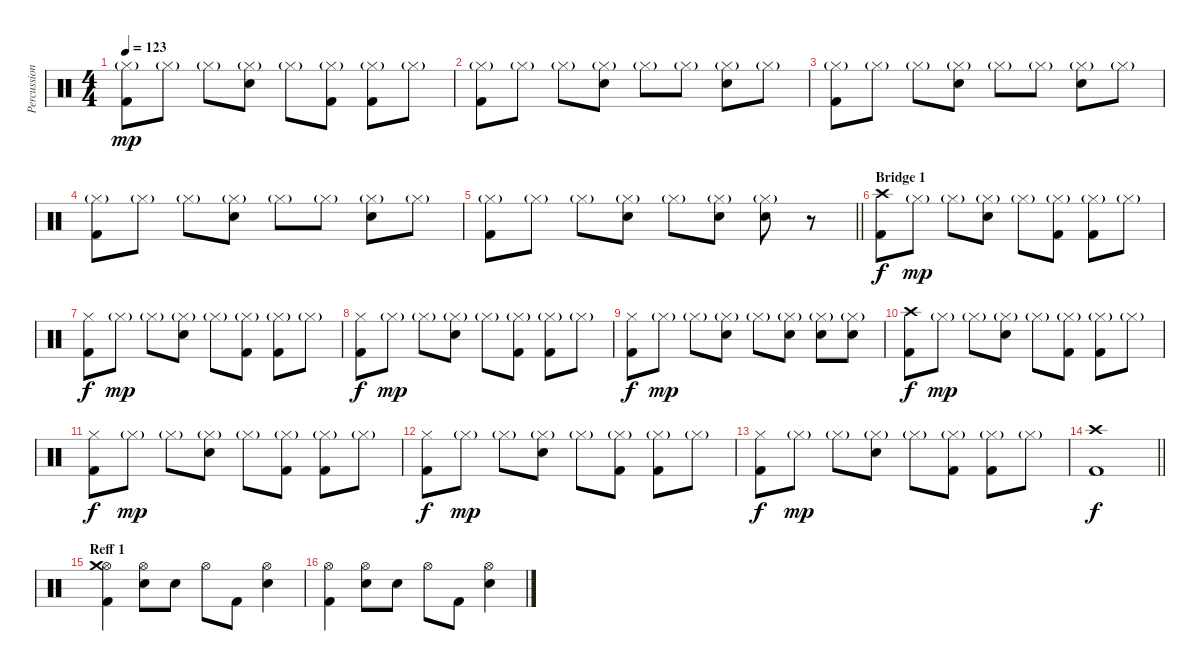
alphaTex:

\track ("Percussion 1" "Percussion") {instrument percussion}
\staff {score}
\articulation defaults
\ts (4 4)
\tempo 123
\clef neutral
\ks c
("Hi-Hat (closed)"{g} "Kick (hit) 2").8{dy mp} "Hi-Hat (closed)"{g}.8 "Hi-Hat (closed)"{g}.8 ("Hi-Hat (closed)"{g} "Electric Snare (hit)").8 "Hi-Hat (closed)"{g}.8 ("Hi-Hat (closed)"{g} "Kick (hit) 2").8 ("Hi-Hat (closed)"{g} "Kick (hit) 2").8 "Hi-Hat (closed)"{g}.8 |
("Hi-Hat (closed)"{g} "Kick (hit) 2").8 "Hi-Hat (closed)"{g}.8 "Hi-Hat (closed)"{g}.8 ("Hi-Hat (closed)"{g} "Electric Snare (hit)").8 "Hi-Hat (closed)"{g}.8 "Hi-Hat (closed)"{g}.8 ("Hi-Hat (closed)"{g} "Electric Snare (hit)").8 "Hi-Hat (closed)"{g}.8 |
("Hi-Hat (closed)"{g} "Kick (hit) 2").8 "Hi-Hat (closed)"{g}.8 "Hi-Hat (closed)"{g}.8 ("Hi-Hat (closed)"{g} "Electric Snare (hit)").8 "Hi-Hat (closed)"{g}.8 "Hi-Hat (closed)"{g}.8 ("Hi-Hat (closed)"{g} "Electric Snare (hit)").8 "Hi-Hat (closed)"{g}.8 |
("Hi-Hat (closed)"{g} "Kick (hit) 2").8 "Hi-Hat (closed)"{g}.8 "Hi-Hat (closed)"{g}.8 ("Hi-Hat (closed)"{g} "Electric Snare (hit)").8 "Hi-Hat (closed)"{g}.8 "Hi-Hat (closed)"{g}.8 ("Hi-Hat (closed)"{g} "Electric Snare (hit)").8 "Hi-Hat (closed)"{g}.8 |
\barLineRight lightlight
("Hi-Hat (closed)"{g} "Kick (hit) 2").8 "Hi-Hat (closed)"{g}.8 "Hi-Hat (closed)"{g}.8 ("Hi-Hat (closed)"{g} "Electric Snare (hit)").8 "Hi-Hat (closed)"{g}.8 ("Hi-Hat (closed)"{g} "Electric Snare (hit)").8 ("Hi-Hat (closed)"{g} "Electric Snare (hit)").8 r.8 |
\section ("" "Bridge 1")
("Crash high (hit)" "Kick (hit) 2").8{dy f} "Hi-Hat (closed)"{g}.8{dy mp} "Hi-Hat (closed)"{g}.8 ("Hi-Hat (closed)"{g} "Electric Snare (hit)").8 "Hi-Hat (closed)"{g}.8 ("Hi-Hat (closed)"{g} "Kick (hit) 2").8 ("Hi-Hat (closed)"{g} "Kick (hit) 2").8 "Hi-Hat (closed)"{g}.8 |
("Hi-Hat (closed)" "Kick (hit) 2").8{dy f} "Hi-Hat (closed)"{g}.8{dy mp} "Hi-Hat (closed)"{g}.8 ("Hi-Hat (closed)"{g} "Electric Snare (hit)").8 "Hi-Hat (closed)"{g}.8 ("Hi-Hat (closed)"{g} "Kick (hit) 2").8 ("Hi-Hat (closed)"{g} "Kick (hit) 2").8 "Hi-Hat (closed)"{g}.8 |
("Hi-Hat (closed)" "Kick (hit) 2").8{dy f} "Hi-Hat (closed)"{g}.8{dy mp} "Hi-Hat (closed)"{g}.8 ("Hi-Hat (closed)"{g} "Electric Snare (hit)").8 "Hi-Hat (closed)"{g}.8 ("Hi-Hat (closed)"{g} "Kick (hit) 2").8 ("Hi-Hat (closed)"{g} "Kick (hit) 2").8 "Hi-Hat (closed)"{g}.8 |
("Hi-Hat (closed)" "Kick (hit) 2").8{dy f} "Hi-Hat (closed)"{g}.8{dy mp} "Hi-Hat (closed)"{g}.8 ("Hi-Hat (closed)"{g} "Electric Snare (hit)").8 "Hi-Hat (closed)"{g}.8 ("Hi-Hat (closed)"{g} "Electric Snare (hit)").8 ("Hi-Hat (closed)"{g} "Electric Snare (hit)").8 ("Hi-Hat (closed)"{g} "Electric Snare (hit)").8 |
("Crash high (hit)" "Kick (hit) 2").8{dy f} "Hi-Hat (closed)"{g}.8{dy mp} "Hi-Hat (closed)"{g}.8 ("Hi-Hat (closed)"{g} "Electric Snare (hit)").8 "Hi-Hat (closed)"{g}.8 ("Hi-Hat (closed)"{g} "Kick (hit) 2").8 ("Hi-Hat (closed)"{g} "Kick (hit) 2").8 "Hi-Hat (closed)"{g}.8 |
("Hi-Hat (closed)" "Kick (hit) 2").8{dy f} "Hi-Hat (closed)"{g}.8{dy mp} "Hi-Hat (closed)"{g}.8 ("Hi-Hat (closed)"{g} "Electric Snare (hit)").8 "Hi-Hat (closed)"{g}.8 ("Hi-Hat (closed)"{g} "Kick (hit) 2").8 ("Hi-Hat (closed)"{g} "Kick (hit) 2").8 "Hi-Hat (closed)"{g}.8 |
("Hi-Hat (closed)" "Kick (hit) 2").8{dy f} "Hi-Hat (closed)"{g}.8{dy mp} "Hi-Hat (closed)"{g}.8 ("Hi-Hat (closed)"{g} "Electric Snare (hit)").8 "Hi-Hat (closed)"{g}.8 ("Hi-Hat (closed)"{g} "Kick (hit) 2").8 ("Hi-Hat (closed)"{g} "Kick (hit) 2").8 "Hi-Hat (closed)"{g}.8 |
("Hi-Hat (closed)" "Kick (hit) 2").8{dy f} "Hi-Hat (closed)"{g}.8{dy mp} "Hi-Hat (closed)"{g}.8 ("Hi-Hat (closed)"{g} "Electric Snare (hit)").8 "Hi-Hat (closed)"{g}.8 ("Hi-Hat (closed)"{g} "Kick (hit) 2").8 ("Hi-Hat (closed)"{g} "Kick (hit) 2").8 "Hi-Hat (closed)"{g}.8 |
\barLineRight lightlight
("Crash high (hit)" "Kick (hit) 2").1{dy f} |
\section ("" "Reff 1")
("Hi-Hat (open)" "Crash medium (hit)" "Kick (hit) 2").4 ("Hi-Hat (open)" "Electric Snare (hit)").8 "Electric Snare (hit)".8 "Hi-Hat (open)".8 "Kick (hit) 2".8 ("Hi-Hat (open)" "Electric Snare (hit)").4 |
("Hi-Hat (open)" "Kick (hit) 2").4 ("Hi-Hat (open)" "Electric Snare (hit)").8 "Electric Snare (hit)".8 "Hi-Hat (open)".8 "Kick (hit) 2".8 ("Hi-Hat (open)" "Electric Snare (hit)").4
